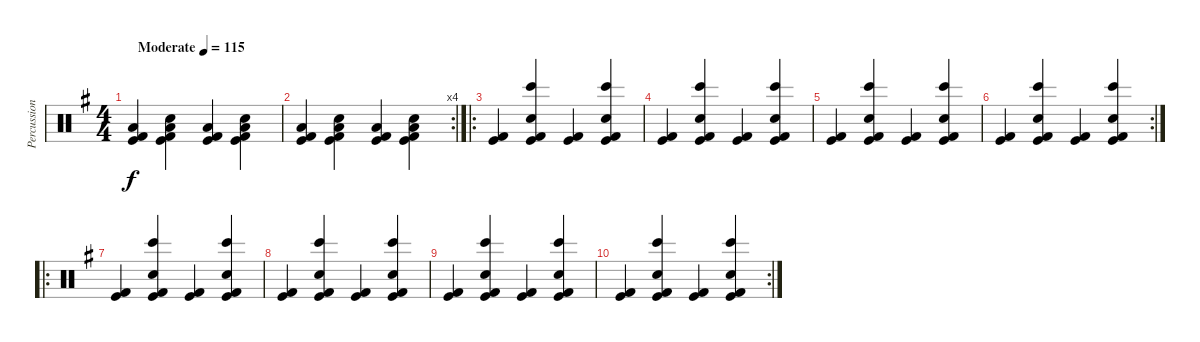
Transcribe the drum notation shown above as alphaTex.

\track ("Percussion" "Percussion") {instrument percussion}
\staff {score}
\articulation defaults
\ts (4 4)
\tempo (115 "Moderate")
\clef neutral
\ks g
("Low Floor Tom (hit)" "Kick (hit) 2" "Kick (hit)").4{dy f} ("Low Floor Tom (hit)" "Kick (hit) 2" "Hand Clap (hit)" "Kick (hit)").4 ("Low Floor Tom (hit)" "Kick (hit) 2" "Kick (hit)").4 ("Low Floor Tom (hit)" "Kick (hit) 2" "Hand Clap (hit)" "Kick (hit)").4 |
\rc 4
("Low Floor Tom (hit)" "Kick (hit) 2" "Kick (hit)").4 ("Low Floor Tom (hit)" "Kick (hit) 2" "Hand Clap (hit)" "Kick (hit)").4 ("Low Floor Tom (hit)" "Kick (hit) 2" "Kick (hit)").4 ("Low Floor Tom (hit)" "Kick (hit) 2" "Hand Clap (hit)" "Kick (hit)").4 |
\ro
("Kick (hit) 2" "Kick (hit)").4 ("Bongo High (hit)" "Kick (hit) 2" "Snare (hit) 2" "Kick (hit)").4 ("Kick (hit) 2" "Kick (hit)").4 ("Bongo High (hit)" "Kick (hit) 2" "Snare (hit) 2" "Kick (hit)").4 |
("Kick (hit) 2" "Kick (hit)").4 ("Bongo High (hit)" "Kick (hit) 2" "Snare (hit) 2" "Kick (hit)").4 ("Kick (hit) 2" "Kick (hit)").4 ("Bongo High (hit)" "Kick (hit) 2" "Snare (hit) 2" "Kick (hit)").4 |
("Kick (hit) 2" "Kick (hit)").4 ("Bongo High (hit)" "Kick (hit) 2" "Snare (hit) 2" "Kick (hit)").4 ("Kick (hit) 2" "Kick (hit)").4 ("Bongo High (hit)" "Kick (hit) 2" "Snare (hit) 2" "Kick (hit)").4 |
\rc 2
("Kick (hit) 2" "Kick (hit)").4 ("Bongo High (hit)" "Kick (hit) 2" "Snare (hit) 2" "Kick (hit)").4 ("Kick (hit) 2" "Kick (hit)").4 ("Bongo High (hit)" "Kick (hit) 2" "Snare (hit) 2" "Kick (hit)").4 |
\ro
("Kick (hit) 2" "Kick (hit)").4 ("Bongo High (hit)" "Kick (hit) 2" "Snare (hit) 2" "Kick (hit)").4 ("Kick (hit) 2" "Kick (hit)").4 ("Bongo High (hit)" "Kick (hit) 2" "Snare (hit) 2" "Kick (hit)").4 |
("Kick (hit) 2" "Kick (hit)").4 ("Bongo High (hit)" "Kick (hit) 2" "Snare (hit) 2" "Kick (hit)").4 ("Kick (hit) 2" "Kick (hit)").4 ("Bongo High (hit)" "Kick (hit) 2" "Snare (hit) 2" "Kick (hit)").4 |
("Kick (hit) 2" "Kick (hit)").4 ("Bongo High (hit)" "Kick (hit) 2" "Snare (hit) 2" "Kick (hit)").4 ("Kick (hit) 2" "Kick (hit)").4 ("Bongo High (hit)" "Kick (hit) 2" "Snare (hit) 2" "Kick (hit)").4 |
\rc 2
("Kick (hit) 2" "Kick (hit)").4 ("Bongo High (hit)" "Kick (hit) 2" "Snare (hit) 2" "Kick (hit)").4 ("Kick (hit) 2" "Kick (hit)").4 ("Bongo High (hit)" "Kick (hit) 2" "Snare (hit) 2" "Kick (hit)").4
